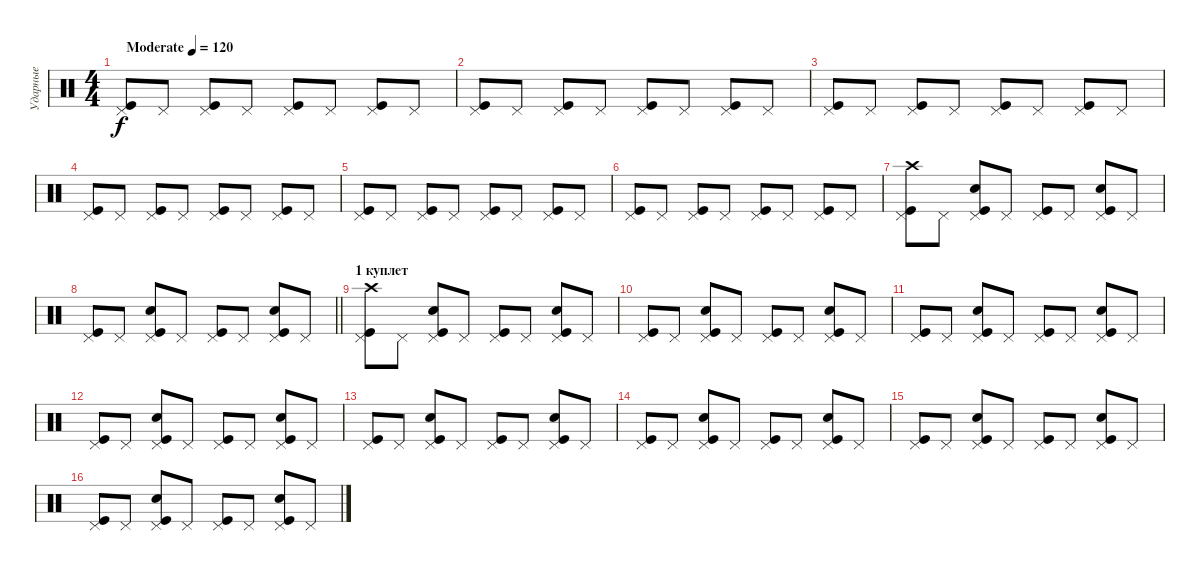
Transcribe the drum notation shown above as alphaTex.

\track ("Ударные" "Ударные") {instrument percussion}
\staff {score}
\articulation defaults
\ts (4 4)
\tempo (120 "Moderate")
\clef neutral
\ks c
("Pedal Hi-Hat (hit)" "Kick (hit)").8{dy f} "Pedal Hi-Hat (hit)".8 ("Pedal Hi-Hat (hit)" "Kick (hit)").8 "Pedal Hi-Hat (hit)".8 ("Pedal Hi-Hat (hit)" "Kick (hit)").8 "Pedal Hi-Hat (hit)".8 ("Pedal Hi-Hat (hit)" "Kick (hit)").8 "Pedal Hi-Hat (hit)".8 |
("Pedal Hi-Hat (hit)" "Kick (hit)").8 "Pedal Hi-Hat (hit)".8 ("Pedal Hi-Hat (hit)" "Kick (hit)").8 "Pedal Hi-Hat (hit)".8 ("Pedal Hi-Hat (hit)" "Kick (hit)").8 "Pedal Hi-Hat (hit)".8 ("Pedal Hi-Hat (hit)" "Kick (hit)").8 "Pedal Hi-Hat (hit)".8 |
("Pedal Hi-Hat (hit)" "Kick (hit)").8 "Pedal Hi-Hat (hit)".8 ("Pedal Hi-Hat (hit)" "Kick (hit)").8 "Pedal Hi-Hat (hit)".8 ("Pedal Hi-Hat (hit)" "Kick (hit)").8 "Pedal Hi-Hat (hit)".8 ("Pedal Hi-Hat (hit)" "Kick (hit)").8 "Pedal Hi-Hat (hit)".8 |
("Pedal Hi-Hat (hit)" "Kick (hit)").8 "Pedal Hi-Hat (hit)".8 ("Pedal Hi-Hat (hit)" "Kick (hit)").8 "Pedal Hi-Hat (hit)".8 ("Pedal Hi-Hat (hit)" "Kick (hit)").8 "Pedal Hi-Hat (hit)".8 ("Pedal Hi-Hat (hit)" "Kick (hit)").8 "Pedal Hi-Hat (hit)".8 |
("Pedal Hi-Hat (hit)" "Kick (hit)").8 "Pedal Hi-Hat (hit)".8 ("Pedal Hi-Hat (hit)" "Kick (hit)").8 "Pedal Hi-Hat (hit)".8 ("Pedal Hi-Hat (hit)" "Kick (hit)").8 "Pedal Hi-Hat (hit)".8 ("Pedal Hi-Hat (hit)" "Kick (hit)").8 "Pedal Hi-Hat (hit)".8 |
("Pedal Hi-Hat (hit)" "Kick (hit)").8 "Pedal Hi-Hat (hit)".8 ("Pedal Hi-Hat (hit)" "Kick (hit)").8 "Pedal Hi-Hat (hit)".8 ("Pedal Hi-Hat (hit)" "Kick (hit)").8 "Pedal Hi-Hat (hit)".8 ("Pedal Hi-Hat (hit)" "Kick (hit)").8 "Pedal Hi-Hat (hit)".8 |
("Pedal Hi-Hat (hit)" "Kick (hit)" "Crash high (hit)").8 "Pedal Hi-Hat (hit)".8 ("Pedal Hi-Hat (hit)" "Kick (hit)" "Snare (hit) 2").8 "Pedal Hi-Hat (hit)".8 ("Pedal Hi-Hat (hit)" "Kick (hit)").8 "Pedal Hi-Hat (hit)".8 ("Pedal Hi-Hat (hit)" "Kick (hit)" "Snare (hit) 2").8 "Pedal Hi-Hat (hit)".8 |
\barLineRight lightlight
("Pedal Hi-Hat (hit)" "Kick (hit)").8 "Pedal Hi-Hat (hit)".8 ("Pedal Hi-Hat (hit)" "Kick (hit)" "Snare (hit) 2").8 "Pedal Hi-Hat (hit)".8 ("Pedal Hi-Hat (hit)" "Kick (hit)").8 "Pedal Hi-Hat (hit)".8 ("Pedal Hi-Hat (hit)" "Kick (hit)" "Snare (hit) 2").8 "Pedal Hi-Hat (hit)".8 |
\section ("" "1 куплет")
("Pedal Hi-Hat (hit)" "Kick (hit)" "Crash high (hit)").8 "Pedal Hi-Hat (hit)".8 ("Pedal Hi-Hat (hit)" "Kick (hit)" "Snare (hit) 2").8 "Pedal Hi-Hat (hit)".8 ("Pedal Hi-Hat (hit)" "Kick (hit)").8 "Pedal Hi-Hat (hit)".8 ("Pedal Hi-Hat (hit)" "Kick (hit)" "Snare (hit) 2").8 "Pedal Hi-Hat (hit)".8 |
("Pedal Hi-Hat (hit)" "Kick (hit)").8 "Pedal Hi-Hat (hit)".8 ("Pedal Hi-Hat (hit)" "Kick (hit)" "Snare (hit) 2").8 "Pedal Hi-Hat (hit)".8 ("Pedal Hi-Hat (hit)" "Kick (hit)").8 "Pedal Hi-Hat (hit)".8 ("Pedal Hi-Hat (hit)" "Kick (hit)" "Snare (hit) 2").8 "Pedal Hi-Hat (hit)".8 |
("Pedal Hi-Hat (hit)" "Kick (hit)").8 "Pedal Hi-Hat (hit)".8 ("Pedal Hi-Hat (hit)" "Kick (hit)" "Snare (hit) 2").8 "Pedal Hi-Hat (hit)".8 ("Pedal Hi-Hat (hit)" "Kick (hit)").8 "Pedal Hi-Hat (hit)".8 ("Pedal Hi-Hat (hit)" "Kick (hit)" "Snare (hit) 2").8 "Pedal Hi-Hat (hit)".8 |
("Pedal Hi-Hat (hit)" "Kick (hit)").8 "Pedal Hi-Hat (hit)".8 ("Pedal Hi-Hat (hit)" "Kick (hit)" "Snare (hit) 2").8 "Pedal Hi-Hat (hit)".8 ("Pedal Hi-Hat (hit)" "Kick (hit)").8 "Pedal Hi-Hat (hit)".8 ("Pedal Hi-Hat (hit)" "Kick (hit)" "Snare (hit) 2").8 "Pedal Hi-Hat (hit)".8 |
("Pedal Hi-Hat (hit)" "Kick (hit)").8 "Pedal Hi-Hat (hit)".8 ("Pedal Hi-Hat (hit)" "Kick (hit)" "Snare (hit) 2").8 "Pedal Hi-Hat (hit)".8 ("Pedal Hi-Hat (hit)" "Kick (hit)").8 "Pedal Hi-Hat (hit)".8 ("Pedal Hi-Hat (hit)" "Kick (hit)" "Snare (hit) 2").8 "Pedal Hi-Hat (hit)".8 |
("Pedal Hi-Hat (hit)" "Kick (hit)").8 "Pedal Hi-Hat (hit)".8 ("Pedal Hi-Hat (hit)" "Kick (hit)" "Snare (hit) 2").8 "Pedal Hi-Hat (hit)".8 ("Pedal Hi-Hat (hit)" "Kick (hit)").8 "Pedal Hi-Hat (hit)".8 ("Pedal Hi-Hat (hit)" "Kick (hit)" "Snare (hit) 2").8 "Pedal Hi-Hat (hit)".8 |
("Pedal Hi-Hat (hit)" "Kick (hit)").8 "Pedal Hi-Hat (hit)".8 ("Pedal Hi-Hat (hit)" "Kick (hit)" "Snare (hit) 2").8 "Pedal Hi-Hat (hit)".8 ("Pedal Hi-Hat (hit)" "Kick (hit)").8 "Pedal Hi-Hat (hit)".8 ("Pedal Hi-Hat (hit)" "Kick (hit)" "Snare (hit) 2").8 "Pedal Hi-Hat (hit)".8 |
("Pedal Hi-Hat (hit)" "Kick (hit)").8 "Pedal Hi-Hat (hit)".8 ("Pedal Hi-Hat (hit)" "Kick (hit)" "Snare (hit) 2").8 "Pedal Hi-Hat (hit)".8 ("Pedal Hi-Hat (hit)" "Kick (hit)").8 "Pedal Hi-Hat (hit)".8 ("Pedal Hi-Hat (hit)" "Kick (hit)" "Snare (hit) 2").8 "Pedal Hi-Hat (hit)".8
